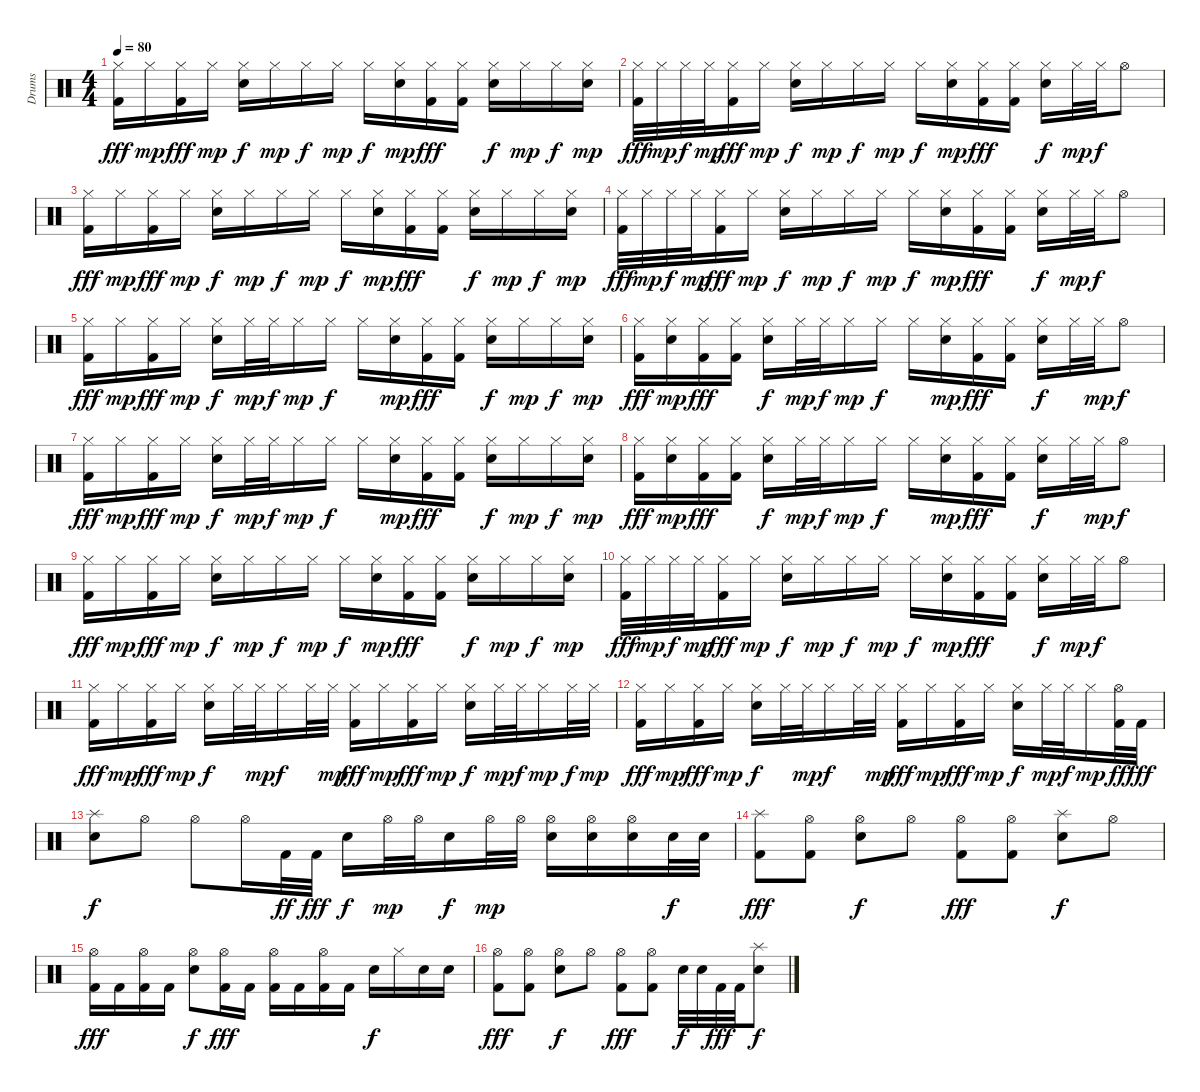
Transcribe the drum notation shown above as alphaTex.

\track ("Drums" "Drums") {instrument percussion}
\staff {score}
\articulation defaults
\ts (4 4)
\tempo 80
\clef neutral
\ks c
("Hi-Hat (closed)" "Kick (hit) 2").16{dy fff} "Hi-Hat (closed)".16{dy mp} ("Hi-Hat (closed)" "Kick (hit) 2").16{dy fff} "Hi-Hat (closed)".16{dy mp} ("Hi-Hat (closed)" "Snare (hit) 2").16{dy f} "Hi-Hat (closed)".16{dy mp} "Hi-Hat (closed)".16{dy f} "Hi-Hat (closed)".16{dy mp} "Hi-Hat (closed)".16{dy f} ("Hi-Hat (closed)" "Snare (hit) 2").16{dy mp} ("Hi-Hat (closed)" "Kick (hit) 2").16{dy fff} ("Hi-Hat (closed)" "Kick (hit) 2").16 ("Hi-Hat (closed)" "Snare (hit) 2").16{dy f} "Hi-Hat (closed)".16{dy mp} "Hi-Hat (closed)".16{dy f} ("Hi-Hat (closed)" "Snare (hit) 2").16{dy mp} |
("Hi-Hat (closed)" "Kick (hit) 2").32{dy fff} "Hi-Hat (closed)".32{dy mp} "Hi-Hat (closed)".32{dy f} "Hi-Hat (closed)".32{dy mp} ("Hi-Hat (closed)" "Kick (hit) 2").16{dy fff} "Hi-Hat (closed)".16{dy mp} ("Hi-Hat (closed)" "Snare (hit) 2").16{dy f} "Hi-Hat (closed)".16{dy mp} "Hi-Hat (closed)".16{dy f} "Hi-Hat (closed)".16{dy mp} "Hi-Hat (closed)".16{dy f} ("Hi-Hat (closed)" "Snare (hit) 2").16{dy mp} ("Hi-Hat (closed)" "Kick (hit) 2").16{dy fff} ("Hi-Hat (closed)" "Kick (hit) 2").16 ("Hi-Hat (closed)" "Snare (hit) 2").16{dy f} "Hi-Hat (closed)".32{dy mp} "Hi-Hat (closed)".32{dy f} "Hi-Hat (open)".8 |
("Hi-Hat (closed)" "Kick (hit) 2").16{dy fff} "Hi-Hat (closed)".16{dy mp} ("Hi-Hat (closed)" "Kick (hit) 2").16{dy fff} "Hi-Hat (closed)".16{dy mp} ("Hi-Hat (closed)" "Snare (hit) 2").16{dy f} "Hi-Hat (closed)".16{dy mp} "Hi-Hat (closed)".16{dy f} "Hi-Hat (closed)".16{dy mp} "Hi-Hat (closed)".16{dy f} ("Hi-Hat (closed)" "Snare (hit) 2").16{dy mp} ("Hi-Hat (closed)" "Kick (hit) 2").16{dy fff} ("Hi-Hat (closed)" "Kick (hit) 2").16 ("Hi-Hat (closed)" "Snare (hit) 2").16{dy f} "Hi-Hat (closed)".16{dy mp} "Hi-Hat (closed)".16{dy f} ("Hi-Hat (closed)" "Snare (hit) 2").16{dy mp} |
("Hi-Hat (closed)" "Kick (hit) 2").32{dy fff} "Hi-Hat (closed)".32{dy mp} "Hi-Hat (closed)".32{dy f} "Hi-Hat (closed)".32{dy mp} ("Hi-Hat (closed)" "Kick (hit) 2").16{dy fff} "Hi-Hat (closed)".16{dy mp} ("Hi-Hat (closed)" "Snare (hit) 2").16{dy f} "Hi-Hat (closed)".16{dy mp} "Hi-Hat (closed)".16{dy f} "Hi-Hat (closed)".16{dy mp} "Hi-Hat (closed)".16{dy f} ("Hi-Hat (closed)" "Snare (hit) 2").16{dy mp} ("Hi-Hat (closed)" "Kick (hit) 2").16{dy fff} ("Hi-Hat (closed)" "Kick (hit) 2").16 ("Hi-Hat (closed)" "Snare (hit) 2").16{dy f} "Hi-Hat (closed)".32{dy mp} "Hi-Hat (closed)".32{dy f} "Hi-Hat (open)".8 |
("Hi-Hat (closed)" "Kick (hit) 2").16{dy fff} "Hi-Hat (closed)".16{dy mp} ("Hi-Hat (closed)" "Kick (hit) 2").16{dy fff} "Hi-Hat (closed)".16{dy mp} ("Hi-Hat (closed)" "Snare (hit) 2").16{dy f} "Hi-Hat (closed)".32{dy mp} "Hi-Hat (closed)".32{dy f} "Hi-Hat (closed)".16{dy mp} "Hi-Hat (closed)".16{dy f} "Hi-Hat (closed)".16 ("Hi-Hat (closed)" "Snare (hit) 2").16{dy mp} ("Hi-Hat (closed)" "Kick (hit) 2").16{dy fff} ("Hi-Hat (closed)" "Kick (hit) 2").16 ("Hi-Hat (closed)" "Snare (hit) 2").16{dy f} "Hi-Hat (closed)".16{dy mp} "Hi-Hat (closed)".16{dy f} ("Hi-Hat (closed)" "Snare (hit) 2").16{dy mp} |
("Hi-Hat (closed)" "Kick (hit) 2").16{dy fff} ("Hi-Hat (closed)" "Snare (hit) 2").16{dy mp} ("Hi-Hat (closed)" "Kick (hit) 2").16{dy fff} ("Hi-Hat (closed)" "Kick (hit) 2").16 ("Hi-Hat (closed)" "Snare (hit) 2").16{dy f} "Hi-Hat (closed)".32{dy mp} "Hi-Hat (closed)".32{dy f} "Hi-Hat (closed)".16{dy mp} "Hi-Hat (closed)".16{dy f} "Hi-Hat (closed)".16 ("Hi-Hat (closed)" "Snare (hit) 2").16{dy mp} ("Hi-Hat (closed)" "Kick (hit) 2").16{dy fff} ("Hi-Hat (closed)" "Kick (hit) 2").16 ("Hi-Hat (closed)" "Snare (hit) 2").16{dy f} "Hi-Hat (closed)".32 "Hi-Hat (closed)".32{dy mp} "Hi-Hat (open)".8{dy f} |
("Hi-Hat (closed)" "Kick (hit) 2").16{dy fff} "Hi-Hat (closed)".16{dy mp} ("Hi-Hat (closed)" "Kick (hit) 2").16{dy fff} "Hi-Hat (closed)".16{dy mp} ("Hi-Hat (closed)" "Snare (hit) 2").16{dy f} "Hi-Hat (closed)".32{dy mp} "Hi-Hat (closed)".32{dy f} "Hi-Hat (closed)".16{dy mp} "Hi-Hat (closed)".16{dy f} "Hi-Hat (closed)".16 ("Hi-Hat (closed)" "Snare (hit) 2").16{dy mp} ("Hi-Hat (closed)" "Kick (hit) 2").16{dy fff} ("Hi-Hat (closed)" "Kick (hit) 2").16 ("Hi-Hat (closed)" "Snare (hit) 2").16{dy f} "Hi-Hat (closed)".16{dy mp} "Hi-Hat (closed)".16{dy f} ("Hi-Hat (closed)" "Snare (hit) 2").16{dy mp} |
("Hi-Hat (closed)" "Kick (hit) 2").16{dy fff} ("Hi-Hat (closed)" "Snare (hit) 2").16{dy mp} ("Hi-Hat (closed)" "Kick (hit) 2").16{dy fff} ("Hi-Hat (closed)" "Kick (hit) 2").16 ("Hi-Hat (closed)" "Snare (hit) 2").16{dy f} "Hi-Hat (closed)".32{dy mp} "Hi-Hat (closed)".32{dy f} "Hi-Hat (closed)".16{dy mp} "Hi-Hat (closed)".16{dy f} "Hi-Hat (closed)".16 ("Hi-Hat (closed)" "Snare (hit) 2").16{dy mp} ("Hi-Hat (closed)" "Kick (hit) 2").16{dy fff} ("Hi-Hat (closed)" "Kick (hit) 2").16 ("Hi-Hat (closed)" "Snare (hit) 2").16{dy f} "Hi-Hat (closed)".32 "Hi-Hat (closed)".32{dy mp} "Hi-Hat (open)".8{dy f} |
("Hi-Hat (closed)" "Kick (hit) 2").16{dy fff} "Hi-Hat (closed)".16{dy mp} ("Hi-Hat (closed)" "Kick (hit) 2").16{dy fff} "Hi-Hat (closed)".16{dy mp} ("Hi-Hat (closed)" "Snare (hit) 2").16{dy f} "Hi-Hat (closed)".16{dy mp} "Hi-Hat (closed)".16{dy f} "Hi-Hat (closed)".16{dy mp} "Hi-Hat (closed)".16{dy f} ("Hi-Hat (closed)" "Snare (hit) 2").16{dy mp} ("Hi-Hat (closed)" "Kick (hit) 2").16{dy fff} ("Hi-Hat (closed)" "Kick (hit) 2").16 ("Hi-Hat (closed)" "Snare (hit) 2").16{dy f} "Hi-Hat (closed)".16{dy mp} "Hi-Hat (closed)".16{dy f} ("Hi-Hat (closed)" "Snare (hit) 2").16{dy mp} |
("Hi-Hat (closed)" "Kick (hit) 2").32{dy fff} "Hi-Hat (closed)".32{dy mp} "Hi-Hat (closed)".32{dy f} "Hi-Hat (closed)".32{dy mp} ("Hi-Hat (closed)" "Kick (hit) 2").16{dy fff} "Hi-Hat (closed)".16{dy mp} ("Hi-Hat (closed)" "Snare (hit) 2").16{dy f} "Hi-Hat (closed)".16{dy mp} "Hi-Hat (closed)".16{dy f} "Hi-Hat (closed)".16{dy mp} "Hi-Hat (closed)".16{dy f} ("Hi-Hat (closed)" "Snare (hit) 2").16{dy mp} ("Hi-Hat (closed)" "Kick (hit) 2").16{dy fff} ("Hi-Hat (closed)" "Kick (hit) 2").16 ("Hi-Hat (closed)" "Snare (hit) 2").16{dy f} "Hi-Hat (closed)".32{dy mp} "Hi-Hat (closed)".32{dy f} "Hi-Hat (open)".8 |
("Hi-Hat (closed)" "Kick (hit) 2").16{dy fff} "Hi-Hat (closed)".16{dy mp} ("Hi-Hat (closed)" "Kick (hit) 2").16{dy fff} "Hi-Hat (closed)".16{dy mp} ("Hi-Hat (closed)" "Snare (hit) 2").16{dy f} "Hi-Hat (closed)".32 "Hi-Hat (closed)".32{dy mp} "Hi-Hat (closed)".16{dy f} "Hi-Hat (closed)".32 "Hi-Hat (closed)".32{dy mp} ("Hi-Hat (closed)" "Kick (hit) 2").16{dy fff} "Hi-Hat (closed)".16{dy mp} ("Hi-Hat (closed)" "Kick (hit) 2").16{dy fff} "Hi-Hat (closed)".16{dy mp} ("Hi-Hat (closed)" "Snare (hit) 2").16{dy f} "Hi-Hat (closed)".32{dy mp} "Hi-Hat (closed)".32{dy f} "Hi-Hat (closed)".16{dy mp} "Hi-Hat (closed)".32{dy f} "Hi-Hat (closed)".32{dy mp} |
("Hi-Hat (closed)" "Kick (hit) 2").16{dy fff} "Hi-Hat (closed)".16{dy mp} ("Hi-Hat (closed)" "Kick (hit) 2").16{dy fff} "Hi-Hat (closed)".16{dy mp} ("Hi-Hat (closed)" "Snare (hit) 2").16{dy f} "Hi-Hat (closed)".32 "Hi-Hat (closed)".32{dy mp} "Hi-Hat (closed)".16{dy f} "Hi-Hat (closed)".32 "Hi-Hat (closed)".32{dy mp} ("Hi-Hat (closed)" "Kick (hit) 2").16{dy fff} "Hi-Hat (closed)".16{dy mp} ("Hi-Hat (closed)" "Kick (hit) 2").16{dy fff} "Hi-Hat (closed)".16{dy mp} ("Hi-Hat (closed)" "Snare (hit) 2").16{dy f} "Hi-Hat (closed)".32{dy mp} "Hi-Hat (closed)".32{dy f} "Hi-Hat (closed)".16{dy mp} ("Hi-Hat (open)" "Kick (hit) 2").32{dy ff} "Kick (hit) 2".32{dy fff} |
("Splash (hit)" "Snare (hit) 2").8{dy f} "Hi-Hat (open)".8 "Hi-Hat (open)".8 "Hi-Hat (open)".16 "Kick (hit) 2".32{dy ff} "Kick (hit) 2".32{dy fff} "Snare (hit) 2".16{dy f} "Hi-Hat (open)".32{dy mp} "Hi-Hat (open)".32 "Snare (hit) 2".16{dy f} "Hi-Hat (open)".32{dy mp} "Hi-Hat (open)".32 ("Hi-Hat (open)" "Snare (hit) 2").16 ("Hi-Hat (open)" "Snare (hit) 2").16 ("Hi-Hat (open)" "Snare (hit) 2").16 "Snare (hit) 2".32{dy f} "Snare (hit) 2".32 |
("Splash (hit)" "Kick (hit) 2").8{dy fff} ("Hi-Hat (open)" "Kick (hit) 2").8 ("Hi-Hat (open)" "Snare (hit) 2").8{dy f} "Hi-Hat (open)".8 ("Hi-Hat (open)" "Kick (hit) 2").8{dy fff} ("Hi-Hat (open)" "Kick (hit) 2").8 ("Splash (hit)" "Snare (hit) 2").8{dy f} "Hi-Hat (open)".8 |
("Hi-Hat (open)" "Kick (hit) 2").16{dy fff} "Kick (hit) 2".16 ("Hi-Hat (open)" "Kick (hit) 2").16 "Kick (hit) 2".16 ("Hi-Hat (open)" "Snare (hit) 2").8{dy f} ("Hi-Hat (open)" "Kick (hit) 2").16{dy fff} "Kick (hit) 2".16 ("Hi-Hat (open)" "Kick (hit) 2").16 "Kick (hit) 2".16 ("Hi-Hat (open)" "Kick (hit) 2").16 "Kick (hit) 2".16 "Snare (hit) 2".16{dy f} "Hi-Hat (closed)".16 "Snare (hit) 2".16 "Snare (hit) 2".16 |
("Hi-Hat (open)" "Kick (hit) 2").8{dy fff} ("Hi-Hat (open)" "Kick (hit) 2").8 ("Hi-Hat (open)" "Snare (hit) 2").8{dy f} "Hi-Hat (open)".8 ("Hi-Hat (open)" "Kick (hit) 2").8{dy fff} ("Hi-Hat (open)" "Kick (hit) 2").8 "Snare (hit) 2".32{dy f} "Snare (hit) 2".32 "Kick (hit) 2".32{dy fff} "Kick (hit) 2".32 ("Splash (hit)" "Snare (hit) 2").8{dy f}
